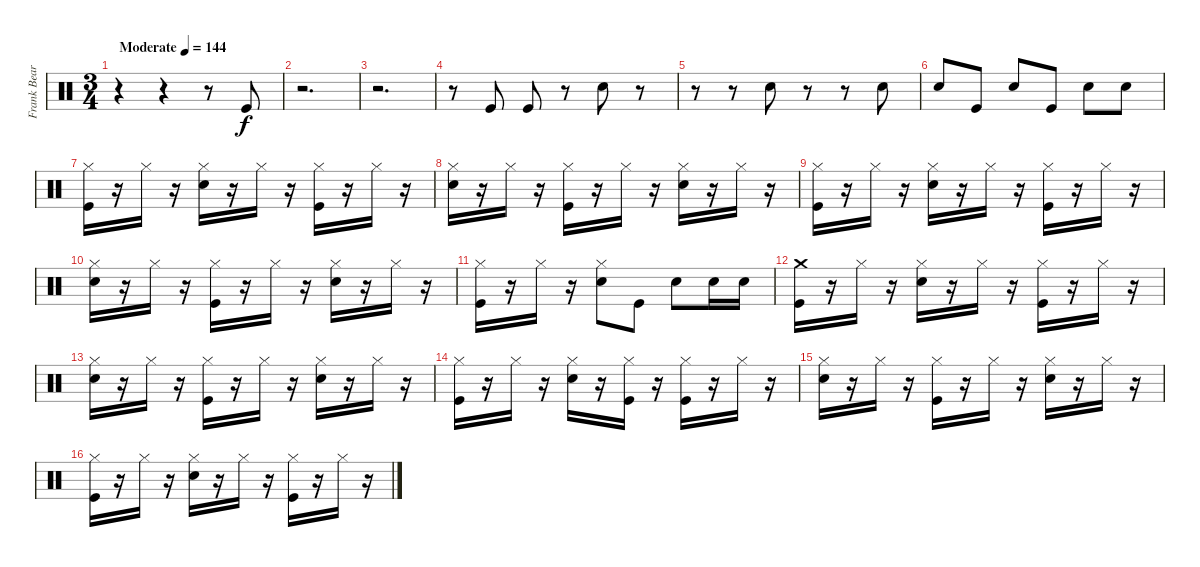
\track ("Frank Beard" "Frank Bear") {instrument percussion}
\staff {score}
\articulation defaults
\ts (3 4)
\tempo (144 "Moderate")
\clef neutral
\ks c
r.4{dy f} r.4 r.8 "Kick (hit)".8 |
r.2{d} |
r.2{d} |
r.8 "Kick (hit)".8 "Kick (hit)".8 r.8 "Electric Snare (hit)".8 r.8 |
r.8 r.8 "Electric Snare (hit)".8 r.8 r.8 "Electric Snare (hit)".8 |
"Electric Snare (hit)".8 "Kick (hit)".8 "Electric Snare (hit)".8 "Kick (hit)".8 "Electric Snare (hit)".8 "Electric Snare (hit)".8 |
("Hi-Hat (closed)" "Kick (hit)").16 r.16 "Hi-Hat (closed)".16 r.16 ("Hi-Hat (closed)" "Electric Snare (hit)").16 r.16 "Hi-Hat (closed)".16 r.16 ("Hi-Hat (closed)" "Kick (hit)").16 r.16 "Hi-Hat (closed)".16 r.16 |
("Hi-Hat (closed)" "Electric Snare (hit)").16 r.16 "Hi-Hat (closed)".16 r.16 ("Hi-Hat (closed)" "Kick (hit)").16 r.16 "Hi-Hat (closed)".16 r.16 ("Hi-Hat (closed)" "Electric Snare (hit)").16 r.16 "Hi-Hat (closed)".16 r.16 |
("Hi-Hat (closed)" "Kick (hit)").16 r.16 "Hi-Hat (closed)".16 r.16 ("Hi-Hat (closed)" "Electric Snare (hit)").16 r.16 "Hi-Hat (closed)".16 r.16 ("Hi-Hat (closed)" "Kick (hit)").16 r.16 "Hi-Hat (closed)".16 r.16 |
("Hi-Hat (closed)" "Electric Snare (hit)").16 r.16 "Hi-Hat (closed)".16 r.16 ("Hi-Hat (closed)" "Kick (hit)").16 r.16 "Hi-Hat (closed)".16 r.16 ("Hi-Hat (closed)" "Electric Snare (hit)").16 r.16 "Hi-Hat (closed)".16 r.16 |
("Hi-Hat (closed)" "Kick (hit)").16 r.16 "Hi-Hat (closed)".16 r.16 ("Hi-Hat (closed)" "Electric Snare (hit)").8 "Kick (hit)".8 "Electric Snare (hit)".8 "Electric Snare (hit)".16 "Electric Snare (hit)".16 |
("Crash medium (hit)" "Kick (hit)").16 r.16 "Hi-Hat (closed)".16 r.16 ("Hi-Hat (closed)" "Electric Snare (hit)").16 r.16 "Hi-Hat (closed)".16 r.16 ("Hi-Hat (closed)" "Kick (hit)").16 r.16 "Hi-Hat (closed)".16 r.16 |
("Hi-Hat (closed)" "Electric Snare (hit)").16 r.16 "Hi-Hat (closed)".16 r.16 ("Hi-Hat (closed)" "Kick (hit)").16 r.16 "Hi-Hat (closed)".16 r.16 ("Hi-Hat (closed)" "Electric Snare (hit)").16 r.16 "Hi-Hat (closed)".16 r.16 |
("Hi-Hat (closed)" "Kick (hit)").16 r.16 "Hi-Hat (closed)".16 r.16 ("Hi-Hat (closed)" "Electric Snare (hit)").16 r.16 ("Hi-Hat (closed)" "Kick (hit)").16 r.16 ("Hi-Hat (closed)" "Kick (hit)").16 r.16 "Hi-Hat (closed)".16 r.16 |
("Hi-Hat (closed)" "Electric Snare (hit)").16 r.16 "Hi-Hat (closed)".16 r.16 ("Hi-Hat (closed)" "Kick (hit)").16 r.16 "Hi-Hat (closed)".16 r.16 ("Hi-Hat (closed)" "Electric Snare (hit)").16 r.16 "Hi-Hat (closed)".16 r.16 |
("Hi-Hat (closed)" "Kick (hit)").16 r.16 "Hi-Hat (closed)".16 r.16 ("Hi-Hat (closed)" "Electric Snare (hit)").16 r.16 "Hi-Hat (closed)".16 r.16 ("Hi-Hat (closed)" "Kick (hit)").16 r.16 "Hi-Hat (closed)".16 r.16
